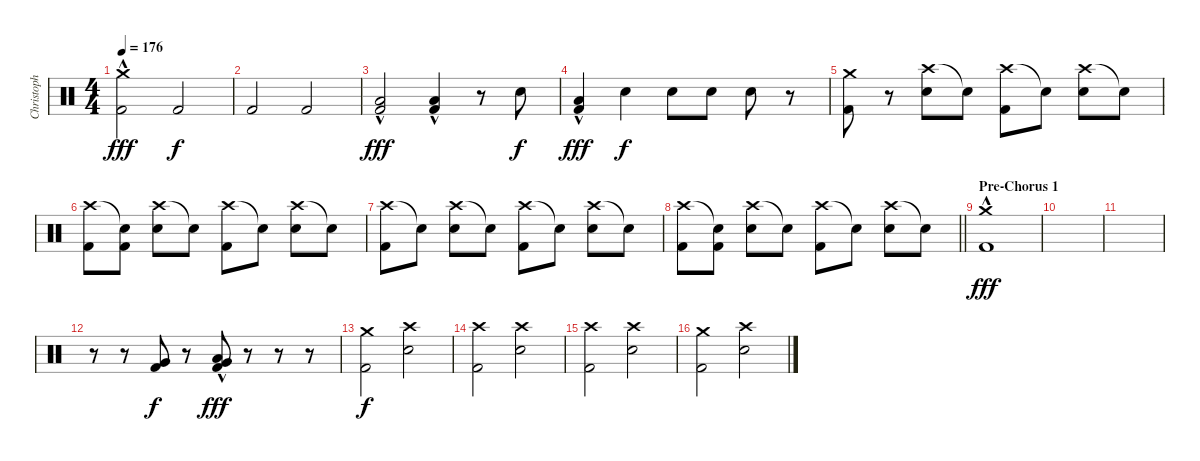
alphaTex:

\track ("Christoph" "Christoph") {instrument percussion}
\staff {score}
\articulation defaults
\ts (4 4)
\tempo 176
\clef neutral
\ks c
("Crash medium (hit)"{hac} "Kick (hit) 2").2{dy fff} "Kick (hit) 2".2{dy f} |
"Kick (hit) 2".2 "Kick (hit) 2".2 |
("Low Floor Tom (hit)" "Kick (hit) 2"{hac}).2{dy fff} ("Low Floor Tom (hit)" "Kick (hit) 2"{hac}).4 r.8 "Snare (hit) 2".8{dy f} |
("Low Floor Tom (hit)" "Kick (hit) 2"{hac}).4{dy fff} "Snare (hit) 2".4{dy f} "Snare (hit) 2".8 "Snare (hit) 2".8 "Snare (hit) 2".8 r.8 |
("Crash medium (hit)" "Kick (hit) 2").8 r.8 ("Crash high (hit)" "Snare (hit) 2").8 "Snare (hit)"{t}.8 ("Crash high (hit)" "Kick (hit) 2").8 "Snare (hit)"{t}.8 ("Crash high (hit)" "Snare (hit) 2").8 "Snare (hit)"{t}.8 |
("Crash high (hit)" "Kick (hit) 2").8 ("Snare (hit)"{t} "Kick (hit) 2").8 ("Crash high (hit)" "Snare (hit) 2").8 "Snare (hit)"{t}.8 ("Crash high (hit)" "Kick (hit) 2").8 "Snare (hit)"{t}.8 ("Crash high (hit)" "Snare (hit) 2").8 "Snare (hit)"{t}.8 |
("Crash high (hit)" "Kick (hit) 2").8 "Snare (hit)"{t}.8 ("Crash high (hit)" "Snare (hit) 2").8 "Snare (hit)"{t}.8 ("Crash high (hit)" "Kick (hit) 2").8 "Snare (hit)"{t}.8 ("Crash high (hit)" "Snare (hit) 2").8 "Snare (hit)"{t}.8 |
\barLineRight lightlight
("Crash high (hit)" "Kick (hit) 2").8 ("Snare (hit)"{t} "Kick (hit) 2").8 ("Crash high (hit)" "Snare (hit) 2").8 "Snare (hit)"{t}.8 ("Crash high (hit)" "Kick (hit) 2").8 "Snare (hit)"{t}.8 ("Crash high (hit)" "Snare (hit) 2").8 "Snare (hit)"{t}.8 |
\section ("" "Pre-Chorus 1")
("Crash medium (hit)"{hac} "Kick (hit) 2").1{dy fff} |
|
|
r.8 r.8 ("Very Low Tom (hit)" "Kick (hit) 2").8{dy f} r.8 ("Very Low Tom (hit)" "Low Floor Tom (hit)"{hac} "Kick (hit) 2"{hac}).8{dy fff} r.8 r.8 r.8 |
("Crash medium (hit)" "Kick (hit) 2").2{dy f} ("Crash high (hit)" "Snare (hit) 2").2 |
("Crash high (hit)" "Kick (hit) 2").2 ("Crash high (hit)" "Snare (hit) 2").2 |
("Crash high (hit)" "Kick (hit) 2").2 ("Crash high (hit)" "Snare (hit) 2").2 |
("Crash medium (hit)" "Kick (hit) 2").2 ("Crash high (hit)" "Snare (hit) 2").2
